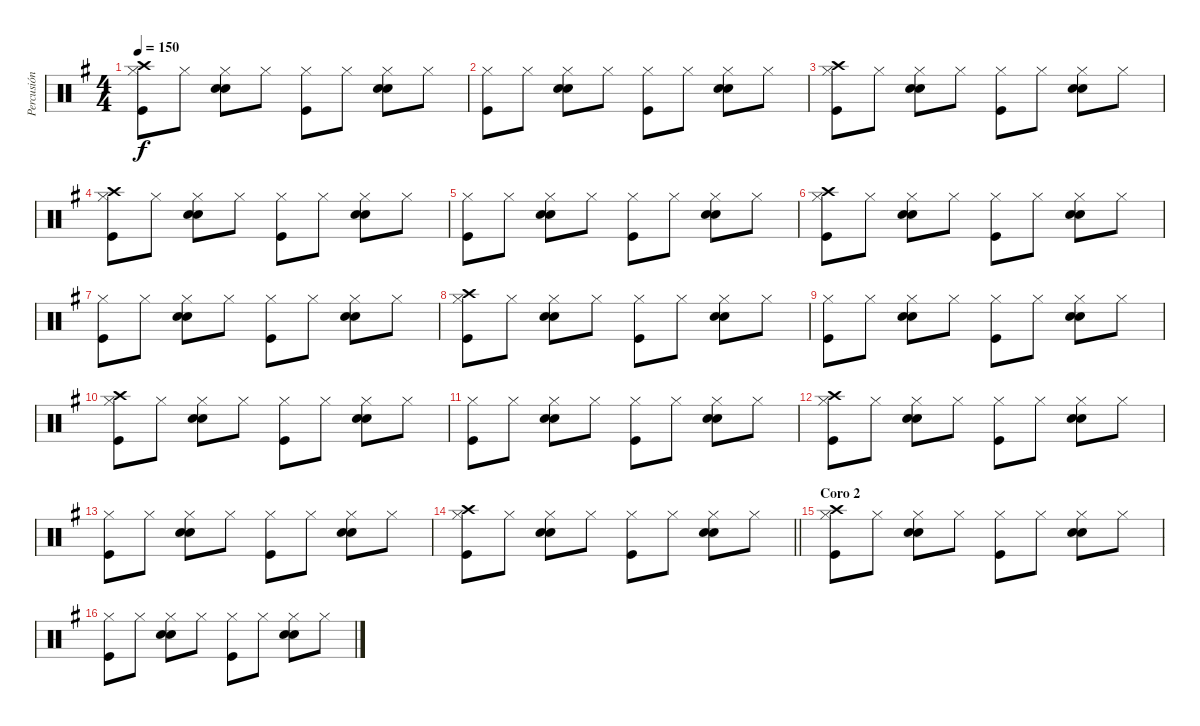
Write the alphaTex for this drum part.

\track ("Percusión" "Percusión") {instrument percussion}
\staff {score}
\articulation defaults
\ts (4 4)
\tempo 150
\clef neutral
\ks g
("Hi-Hat (closed)" "Kick (hit)" "Crash high (hit)").8{dy f} "Hi-Hat (closed)".8 ("Hi-Hat (closed)" "Snare (hit) 2" "Hand Clap (hit)").8 "Hi-Hat (closed)".8 ("Hi-Hat (closed)" "Kick (hit)").8 "Hi-Hat (closed)".8 ("Hi-Hat (closed)" "Snare (hit) 2" "Hand Clap (hit)").8 "Hi-Hat (closed)".8 |
("Hi-Hat (closed)" "Kick (hit)").8 "Hi-Hat (closed)".8 ("Hi-Hat (closed)" "Snare (hit) 2" "Hand Clap (hit)").8 "Hi-Hat (closed)".8 ("Hi-Hat (closed)" "Kick (hit)").8 "Hi-Hat (closed)".8 ("Hi-Hat (closed)" "Snare (hit) 2" "Hand Clap (hit)").8 "Hi-Hat (closed)".8 |
("Hi-Hat (closed)" "Kick (hit)" "Crash high (hit)").8 "Hi-Hat (closed)".8 ("Hi-Hat (closed)" "Snare (hit) 2" "Hand Clap (hit)").8 "Hi-Hat (closed)".8 ("Hi-Hat (closed)" "Kick (hit)").8 "Hi-Hat (closed)".8 ("Hi-Hat (closed)" "Snare (hit) 2" "Hand Clap (hit)").8 "Hi-Hat (closed)".8 |
("Hi-Hat (closed)" "Kick (hit)" "Crash high (hit)").8 "Hi-Hat (closed)".8 ("Hi-Hat (closed)" "Snare (hit) 2" "Hand Clap (hit)").8 "Hi-Hat (closed)".8 ("Hi-Hat (closed)" "Kick (hit)").8 "Hi-Hat (closed)".8 ("Hi-Hat (closed)" "Snare (hit) 2" "Hand Clap (hit)").8 "Hi-Hat (closed)".8 |
("Hi-Hat (closed)" "Kick (hit)").8 "Hi-Hat (closed)".8 ("Hi-Hat (closed)" "Snare (hit) 2" "Hand Clap (hit)").8 "Hi-Hat (closed)".8 ("Hi-Hat (closed)" "Kick (hit)").8 "Hi-Hat (closed)".8 ("Hi-Hat (closed)" "Snare (hit) 2" "Hand Clap (hit)").8 "Hi-Hat (closed)".8 |
("Hi-Hat (closed)" "Kick (hit)" "Crash high (hit)").8 "Hi-Hat (closed)".8 ("Hi-Hat (closed)" "Snare (hit) 2" "Hand Clap (hit)").8 "Hi-Hat (closed)".8 ("Hi-Hat (closed)" "Kick (hit)").8 "Hi-Hat (closed)".8 ("Hi-Hat (closed)" "Snare (hit) 2" "Hand Clap (hit)").8 "Hi-Hat (closed)".8 |
("Hi-Hat (closed)" "Kick (hit)").8 "Hi-Hat (closed)".8 ("Hi-Hat (closed)" "Snare (hit) 2" "Hand Clap (hit)").8 "Hi-Hat (closed)".8 ("Hi-Hat (closed)" "Kick (hit)").8 "Hi-Hat (closed)".8 ("Hi-Hat (closed)" "Snare (hit) 2" "Hand Clap (hit)").8 "Hi-Hat (closed)".8 |
("Hi-Hat (closed)" "Kick (hit)" "Crash high (hit)").8 "Hi-Hat (closed)".8 ("Hi-Hat (closed)" "Snare (hit) 2" "Hand Clap (hit)").8 "Hi-Hat (closed)".8 ("Hi-Hat (closed)" "Kick (hit)").8 "Hi-Hat (closed)".8 ("Hi-Hat (closed)" "Snare (hit) 2" "Hand Clap (hit)").8 "Hi-Hat (closed)".8 |
("Hi-Hat (closed)" "Kick (hit)").8 "Hi-Hat (closed)".8 ("Hi-Hat (closed)" "Snare (hit) 2" "Hand Clap (hit)").8 "Hi-Hat (closed)".8 ("Hi-Hat (closed)" "Kick (hit)").8 "Hi-Hat (closed)".8 ("Hi-Hat (closed)" "Snare (hit) 2" "Hand Clap (hit)").8 "Hi-Hat (closed)".8 |
("Hi-Hat (closed)" "Kick (hit)" "Crash high (hit)").8 "Hi-Hat (closed)".8 ("Hi-Hat (closed)" "Snare (hit) 2" "Hand Clap (hit)").8 "Hi-Hat (closed)".8 ("Hi-Hat (closed)" "Kick (hit)").8 "Hi-Hat (closed)".8 ("Hi-Hat (closed)" "Snare (hit) 2" "Hand Clap (hit)").8 "Hi-Hat (closed)".8 |
("Hi-Hat (closed)" "Kick (hit)").8 "Hi-Hat (closed)".8 ("Hi-Hat (closed)" "Snare (hit) 2" "Hand Clap (hit)").8 "Hi-Hat (closed)".8 ("Hi-Hat (closed)" "Kick (hit)").8 "Hi-Hat (closed)".8 ("Hi-Hat (closed)" "Snare (hit) 2" "Hand Clap (hit)").8 "Hi-Hat (closed)".8 |
("Hi-Hat (closed)" "Kick (hit)" "Crash high (hit)").8 "Hi-Hat (closed)".8 ("Hi-Hat (closed)" "Snare (hit) 2" "Hand Clap (hit)").8 "Hi-Hat (closed)".8 ("Hi-Hat (closed)" "Kick (hit)").8 "Hi-Hat (closed)".8 ("Hi-Hat (closed)" "Snare (hit) 2" "Hand Clap (hit)").8 "Hi-Hat (closed)".8 |
("Hi-Hat (closed)" "Kick (hit)").8 "Hi-Hat (closed)".8 ("Hi-Hat (closed)" "Snare (hit) 2" "Hand Clap (hit)").8 "Hi-Hat (closed)".8 ("Hi-Hat (closed)" "Kick (hit)").8 "Hi-Hat (closed)".8 ("Hi-Hat (closed)" "Snare (hit) 2" "Hand Clap (hit)").8 "Hi-Hat (closed)".8 |
\barLineRight lightlight
("Hi-Hat (closed)" "Kick (hit)" "Crash high (hit)").8 "Hi-Hat (closed)".8 ("Hi-Hat (closed)" "Snare (hit) 2" "Hand Clap (hit)").8 "Hi-Hat (closed)".8 ("Hi-Hat (closed)" "Kick (hit)").8 "Hi-Hat (closed)".8 ("Hi-Hat (closed)" "Snare (hit) 2" "Hand Clap (hit)").8 "Hi-Hat (closed)".8 |
\section ("" "Coro 2")
("Hi-Hat (closed)" "Kick (hit)" "Crash high (hit)").8 "Hi-Hat (closed)".8 ("Hi-Hat (closed)" "Snare (hit) 2" "Hand Clap (hit)").8 "Hi-Hat (closed)".8 ("Hi-Hat (closed)" "Kick (hit)").8 "Hi-Hat (closed)".8 ("Hi-Hat (closed)" "Snare (hit) 2" "Hand Clap (hit)").8 "Hi-Hat (closed)".8 |
("Hi-Hat (closed)" "Kick (hit)").8 "Hi-Hat (closed)".8 ("Hi-Hat (closed)" "Snare (hit) 2" "Hand Clap (hit)").8 "Hi-Hat (closed)".8 ("Hi-Hat (closed)" "Kick (hit)").8 "Hi-Hat (closed)".8 ("Hi-Hat (closed)" "Snare (hit) 2" "Hand Clap (hit)").8 "Hi-Hat (closed)".8
